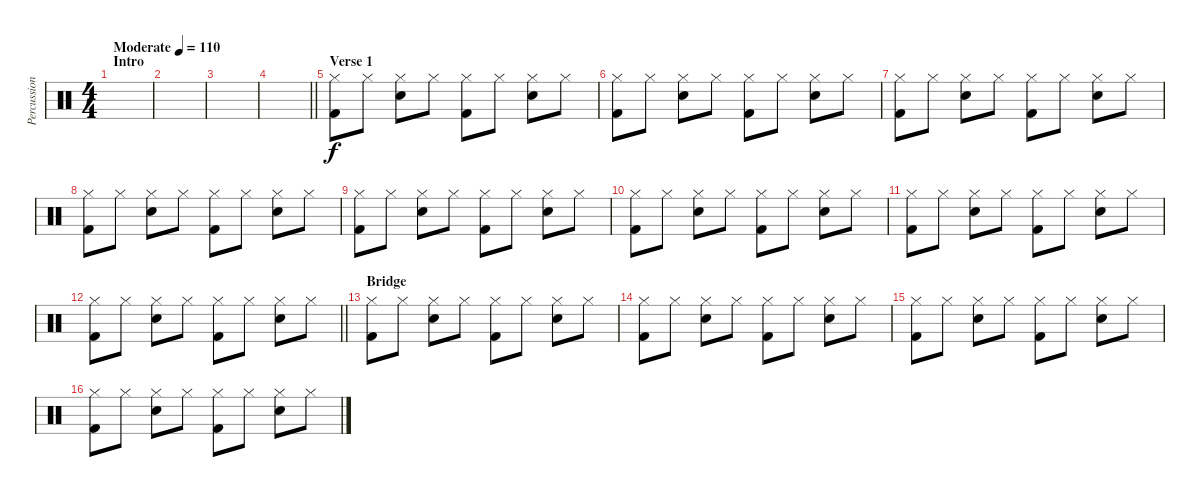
\track ("Percussion" "Percussion") {instrument percussion}
\staff {score}
\articulation defaults
\ts (4 4)
\section ("" "Intro")
\tempo (110 "Moderate")
\clef neutral
\ks c
|
|
|
\barLineRight lightlight
|
\section ("" "Verse 1")
("Hi-Hat (closed)" "Kick (hit) 2").8 "Hi-Hat (closed)".8 ("Hi-Hat (closed)" "Electric Snare (hit)").8 "Hi-Hat (closed)".8 ("Hi-Hat (closed)" "Kick (hit) 2").8 "Hi-Hat (closed)".8 ("Hi-Hat (closed)" "Electric Snare (hit)").8 "Hi-Hat (closed)".8 |
("Hi-Hat (closed)" "Kick (hit) 2").8 "Hi-Hat (closed)".8 ("Hi-Hat (closed)" "Electric Snare (hit)").8 "Hi-Hat (closed)".8 ("Hi-Hat (closed)" "Kick (hit) 2").8 "Hi-Hat (closed)".8 ("Hi-Hat (closed)" "Electric Snare (hit)").8 "Hi-Hat (closed)".8 |
("Hi-Hat (closed)" "Kick (hit) 2").8 "Hi-Hat (closed)".8 ("Hi-Hat (closed)" "Electric Snare (hit)").8 "Hi-Hat (closed)".8 ("Hi-Hat (closed)" "Kick (hit) 2").8 "Hi-Hat (closed)".8 ("Hi-Hat (closed)" "Electric Snare (hit)").8 "Hi-Hat (closed)".8 |
("Hi-Hat (closed)" "Kick (hit) 2").8 "Hi-Hat (closed)".8 ("Hi-Hat (closed)" "Electric Snare (hit)").8 "Hi-Hat (closed)".8 ("Hi-Hat (closed)" "Kick (hit) 2").8 "Hi-Hat (closed)".8 ("Hi-Hat (closed)" "Electric Snare (hit)").8 "Hi-Hat (closed)".8 |
("Hi-Hat (closed)" "Kick (hit) 2").8 "Hi-Hat (closed)".8 ("Hi-Hat (closed)" "Electric Snare (hit)").8 "Hi-Hat (closed)".8 ("Hi-Hat (closed)" "Kick (hit) 2").8 "Hi-Hat (closed)".8 ("Hi-Hat (closed)" "Electric Snare (hit)").8 "Hi-Hat (closed)".8 |
("Hi-Hat (closed)" "Kick (hit) 2").8 "Hi-Hat (closed)".8 ("Hi-Hat (closed)" "Electric Snare (hit)").8 "Hi-Hat (closed)".8 ("Hi-Hat (closed)" "Kick (hit) 2").8 "Hi-Hat (closed)".8 ("Hi-Hat (closed)" "Electric Snare (hit)").8 "Hi-Hat (closed)".8 |
("Hi-Hat (closed)" "Kick (hit) 2").8 "Hi-Hat (closed)".8 ("Hi-Hat (closed)" "Electric Snare (hit)").8 "Hi-Hat (closed)".8 ("Hi-Hat (closed)" "Kick (hit) 2").8 "Hi-Hat (closed)".8 ("Hi-Hat (closed)" "Electric Snare (hit)").8 "Hi-Hat (closed)".8 |
\barLineRight lightlight
("Hi-Hat (closed)" "Kick (hit) 2").8 "Hi-Hat (closed)".8 ("Hi-Hat (closed)" "Electric Snare (hit)").8 "Hi-Hat (closed)".8 ("Hi-Hat (closed)" "Kick (hit) 2").8 "Hi-Hat (closed)".8 ("Hi-Hat (closed)" "Electric Snare (hit)").8 "Hi-Hat (closed)".8 |
\section ("" "Bridge")
("Hi-Hat (closed)" "Kick (hit) 2").8 "Hi-Hat (closed)".8 ("Hi-Hat (closed)" "Electric Snare (hit)").8 "Hi-Hat (closed)".8 ("Hi-Hat (closed)" "Kick (hit) 2").8 "Hi-Hat (closed)".8 ("Hi-Hat (closed)" "Electric Snare (hit)").8 "Hi-Hat (closed)".8 |
("Hi-Hat (closed)" "Kick (hit) 2").8 "Hi-Hat (closed)".8 ("Hi-Hat (closed)" "Electric Snare (hit)").8 "Hi-Hat (closed)".8 ("Hi-Hat (closed)" "Kick (hit) 2").8 "Hi-Hat (closed)".8 ("Hi-Hat (closed)" "Electric Snare (hit)").8 "Hi-Hat (closed)".8 |
("Hi-Hat (closed)" "Kick (hit) 2").8 "Hi-Hat (closed)".8 ("Hi-Hat (closed)" "Electric Snare (hit)").8 "Hi-Hat (closed)".8 ("Hi-Hat (closed)" "Kick (hit) 2").8 "Hi-Hat (closed)".8 ("Hi-Hat (closed)" "Electric Snare (hit)").8 "Hi-Hat (closed)".8 |
("Hi-Hat (closed)" "Kick (hit) 2").8 "Hi-Hat (closed)".8 ("Hi-Hat (closed)" "Electric Snare (hit)").8 "Hi-Hat (closed)".8 ("Hi-Hat (closed)" "Kick (hit) 2").8 "Hi-Hat (closed)".8 ("Hi-Hat (closed)" "Electric Snare (hit)").8 "Hi-Hat (closed)".8
